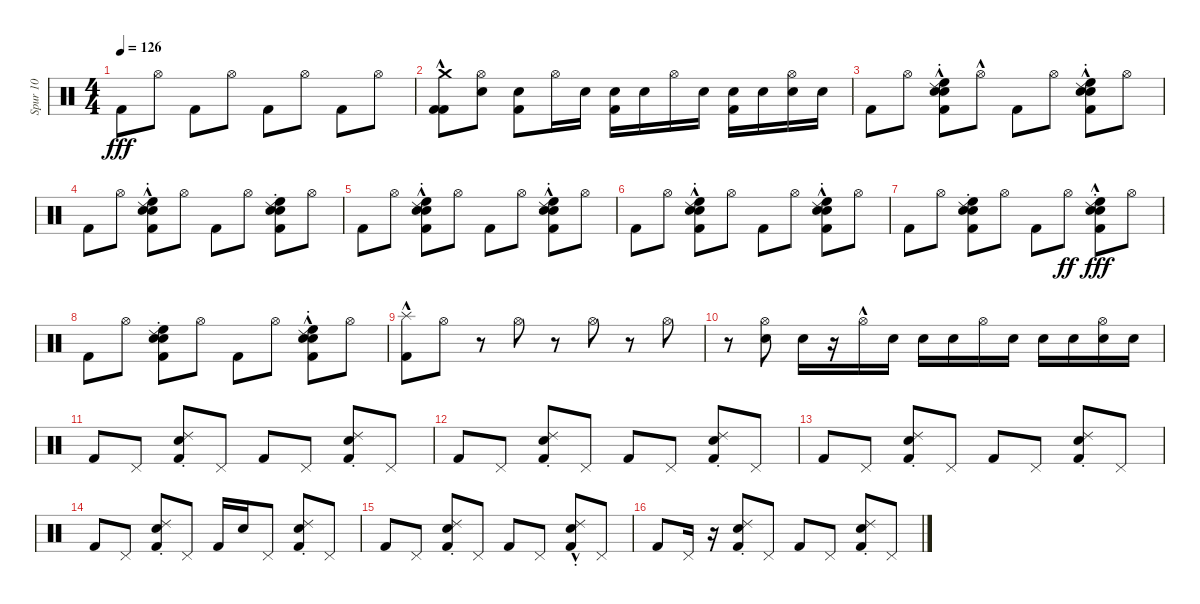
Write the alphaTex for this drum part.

\track ("Spur 10" "Spur 10") {instrument percussion}
\staff {score}
\articulation defaults
\ts (4 4)
\tempo 126
\clef neutral
\ks c "Kick (hit) 2".8{dy fff} "Hi-Hat (open)".8 "Kick (hit) 2".8 "Hi-Hat (open)".8 "Kick (hit) 2".8 "Hi-Hat (open)".8 "Kick (hit) 2".8 "Hi-Hat (open)".8
|
("Crash medium (hit)"{hac} "Kick (hit) 2" "Kick (hit) 2").8 ("Snare (hit) 2" "Hi-Hat (open)").8 ("Kick (hit) 2" "Snare (hit) 2").8 "Hi-Hat (open)".16 "Snare (hit) 2".16 ("Snare (hit) 2" "Kick (hit) 2").16 "Snare (hit) 2".16 "Hi-Hat (open)".16 "Snare (hit) 2".16 ("Snare (hit) 2" "Kick (hit) 2").16 "Snare (hit) 2".16 ("Snare (hit) 2" "Hi-Hat (open)").16 "Snare (hit) 2".16 |
"Kick (hit) 2".8 "Hi-Hat (open)".8 ("Ride (choke) 2"{hac} "Kick (hit) 2" "High Floor Tom (hit)"{hac} "Electric Snare (hit)" "Snare (hit) 2").8 "Hi-Hat (open)"{hac}.8 "Kick (hit) 2".8 "Hi-Hat (open)".8 ("High Floor Tom (hit)"{hac} "Ride (choke) 2" "Electric Snare (hit)" "Kick (hit) 2" "Snare (hit) 2").8 "Hi-Hat (open)".8 |
"Kick (hit) 2".8 "Hi-Hat (open)".8 ("High Floor Tom (hit)"{hac} "Electric Snare (hit)" "Ride (choke) 2"{hac} "Kick (hit) 2" "Snare (hit) 2").8 "Hi-Hat (open)".8 "Kick (hit) 2".8 "Hi-Hat (open)".8 ("Ride (choke) 2" "Electric Snare (hit)" "High Floor Tom (hit)" "Snare (hit) 2" "Kick (hit) 2").8 "Hi-Hat (open)".8 |
"Kick (hit) 2".8 "Hi-Hat (open)".8 ("Electric Snare (hit)" "Kick (hit) 2" "Ride (choke) 2"{hac} "High Floor Tom (hit)"{hac} "Snare (hit) 2").8 "Hi-Hat (open)".8 "Kick (hit) 2".8 "Hi-Hat (open)".8 ("Ride (choke) 2"{hac} "Kick (hit) 2" "Electric Snare (hit)" "High Floor Tom (hit)"{hac} "Snare (hit) 2").8 "Hi-Hat (open)".8 |
"Kick (hit) 2".8 "Hi-Hat (open)".8 ("Ride (choke) 2"{hac} "Kick (hit) 2" "Electric Snare (hit)" "High Floor Tom (hit)"{hac} "Snare (hit) 2").8 "Hi-Hat (open)".8 "Kick (hit) 2".8 "Hi-Hat (open)".8 ("Kick (hit) 2" "Electric Snare (hit)" "High Floor Tom (hit)"{hac} "Ride (choke) 2"{hac} "Snare (hit) 2").8 "Hi-Hat (open)".8 |
"Kick (hit) 2".8 "Hi-Hat (open)".8 ("Electric Snare (hit)" "High Floor Tom (hit)" "Ride (choke) 2" "Kick (hit) 2" "Snare (hit) 2").8 "Hi-Hat (open)".8 "Kick (hit) 2".8 "Hi-Hat (open)".8{dy ff} ("Electric Snare (hit)" "Ride (choke) 2" "Kick (hit) 2" "High Floor Tom (hit)"{hac} "Snare (hit) 2").8{dy fff} "Hi-Hat (open)".8 |
"Kick (hit) 2".8 "Hi-Hat (open)".8 ("Kick (hit) 2" "Ride (choke) 2" "High Floor Tom (hit)" "Electric Snare (hit)" "Snare (hit) 2").8 "Hi-Hat (open)".8 "Kick (hit) 2".8 "Hi-Hat (open)".8 ("High Floor Tom (hit)"{hac} "Electric Snare (hit)" "Ride (choke) 2"{hac} "Kick (hit) 2" "Snare (hit) 2").8 "Hi-Hat (open)".8 |
("Splash (hit)"{hac} "Kick (hit) 2"{hac}).8 "Hi-Hat (open)".8 r.8 "Hi-Hat (open)".8 r.8 "Hi-Hat (open)".8 r.8 "Hi-Hat (open)".8 |
r.8 ("Hi-Hat (open)" "Snare (hit) 2").8 "Snare (hit) 2".16 r.16 "Hi-Hat (open)"{hac}.16 "Snare (hit) 2".16 "Snare (hit) 2".16 "Snare (hit) 2".16 "Hi-Hat (open)".16 "Snare (hit) 2".16 "Snare (hit) 2".16 "Snare (hit) 2".16 ("Hi-Hat (open)" "Snare (hit) 2").16 "Snare (hit) 2".16 |
"Kick (hit) 2".8 "Pedal Hi-Hat (hit)".8 ("Kick (hit) 2" "Ride (choke) 2" "Snare (hit) 2").8 "Pedal Hi-Hat (hit)".8 "Kick (hit) 2".8 "Pedal Hi-Hat (hit)".8 ("Kick (hit) 2" "Snare (hit) 2" "Ride (choke) 2").8 "Pedal Hi-Hat (hit)".8 |
"Kick (hit) 2".8 "Pedal Hi-Hat (hit)".8 ("Kick (hit) 2" "Ride (choke) 2" "Snare (hit) 2").8 "Pedal Hi-Hat (hit)".8 "Kick (hit) 2".8 "Pedal Hi-Hat (hit)".8 ("Kick (hit) 2" "Ride (choke) 2" "Snare (hit) 2").8 "Pedal Hi-Hat (hit)".8 |
"Kick (hit) 2".8 "Pedal Hi-Hat (hit)".8 ("Snare (hit) 2" "Kick (hit) 2" "Ride (choke) 2").8 "Pedal Hi-Hat (hit)".8 "Kick (hit) 2".8 "Pedal Hi-Hat (hit)".8 ("Snare (hit) 2" "Kick (hit) 2" "Ride (choke) 2").8 "Pedal Hi-Hat (hit)".8 |
"Kick (hit) 2".8 "Pedal Hi-Hat (hit)".8 ("Ride (choke) 2" "Snare (hit) 2" "Kick (hit) 2").8 "Pedal Hi-Hat (hit)".8 "Kick (hit) 2".16 "Snare (hit) 2".16 "Pedal Hi-Hat (hit)".8 ("Snare (hit) 2" "Ride (choke) 2" "Kick (hit) 2").8 "Pedal Hi-Hat (hit)".8 |
"Kick (hit) 2".8 "Pedal Hi-Hat (hit)".8 ("Ride (choke) 2" "Kick (hit) 2" "Snare (hit) 2").8 "Pedal Hi-Hat (hit)".8 "Kick (hit) 2".8 "Pedal Hi-Hat (hit)".8 ("Ride (choke) 2"{hac} "Kick (hit) 2" "Snare (hit) 2").8 "Pedal Hi-Hat (hit)".8 |
"Kick (hit) 2".8 "Pedal Hi-Hat (hit)".16 r.16 ("Ride (choke) 2" "Kick (hit) 2" "Snare (hit) 2").8 "Pedal Hi-Hat (hit)".8 "Kick (hit) 2".8 "Pedal Hi-Hat (hit)".8 ("Snare (hit) 2" "Ride (choke) 2" "Kick (hit) 2").8 "Pedal Hi-Hat (hit)".8
